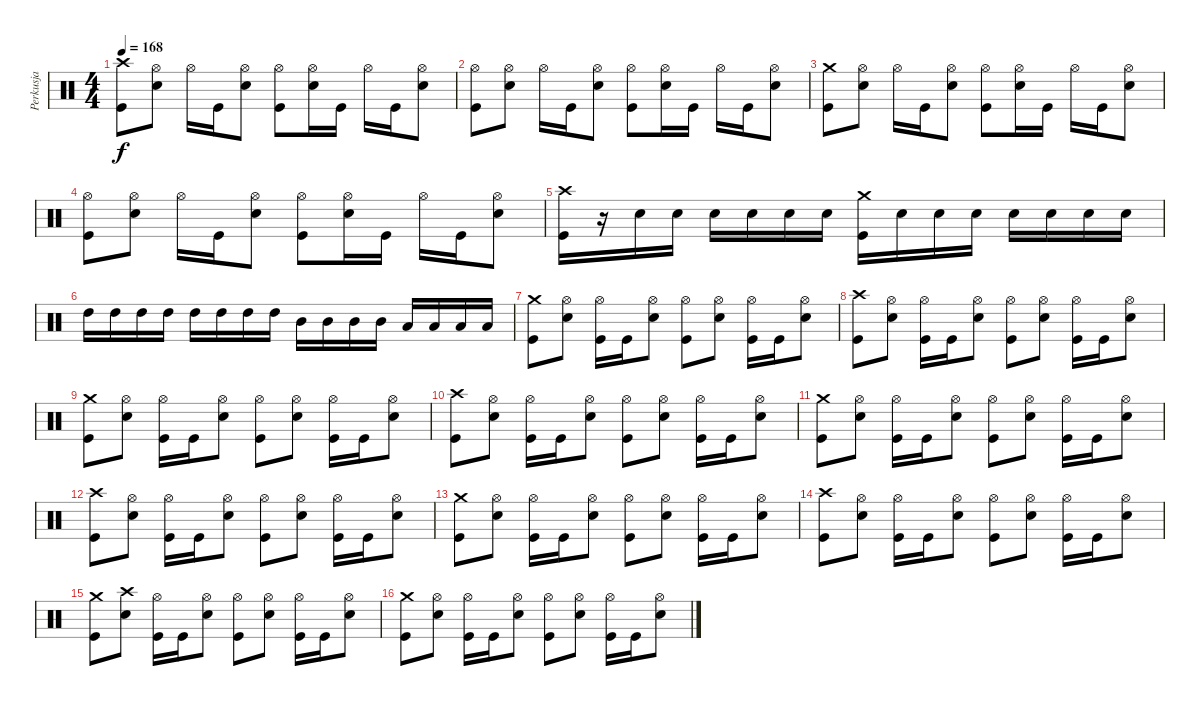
\track ("Perkusja" "Perkusja") {instrument percussion}
\staff {score}
\articulation defaults
\ts (4 4)
\tempo 168
\clef neutral
\ks c
("Kick (hit)" "Crash high (hit)").8{dy f} ("Hi-Hat (open)" "Snare (hit) 2").8 "Hi-Hat (open)".16 "Kick (hit)".16 ("Hi-Hat (open)" "Snare (hit) 2").8 ("Kick (hit)" "Hi-Hat (open)").8 ("Hi-Hat (open)" "Snare (hit) 2").16 "Kick (hit)".16 "Hi-Hat (open)".16 "Kick (hit)".16 ("Hi-Hat (open)" "Snare (hit) 2").8 |
("Kick (hit)" "Hi-Hat (open)").8 ("Hi-Hat (open)" "Snare (hit) 2").8 "Hi-Hat (open)".16 "Kick (hit)".16 ("Hi-Hat (open)" "Snare (hit) 2").8 ("Kick (hit)" "Hi-Hat (open)").8 ("Hi-Hat (open)" "Snare (hit) 2").16 "Kick (hit)".16 "Hi-Hat (open)".16 "Kick (hit)".16 ("Hi-Hat (open)" "Snare (hit) 2").8 |
("Kick (hit)" "Crash medium (hit)").8 ("Hi-Hat (open)" "Snare (hit) 2").8 "Hi-Hat (open)".16 "Kick (hit)".16 ("Hi-Hat (open)" "Snare (hit) 2").8 ("Kick (hit)" "Hi-Hat (open)").8 ("Hi-Hat (open)" "Snare (hit) 2").16 "Kick (hit)".16 "Hi-Hat (open)".16 "Kick (hit)".16 ("Hi-Hat (open)" "Snare (hit) 2").8 |
("Kick (hit)" "Hi-Hat (open)").8 ("Hi-Hat (open)" "Snare (hit) 2").8 "Hi-Hat (open)".16 "Kick (hit)".16 ("Hi-Hat (open)" "Snare (hit) 2").8 ("Kick (hit)" "Hi-Hat (open)").8 ("Hi-Hat (open)" "Snare (hit) 2").16 "Kick (hit)".16 "Hi-Hat (open)".16 "Kick (hit)".16 ("Hi-Hat (open)" "Snare (hit) 2").8 |
("Kick (hit)" "Crash high (hit)").16 r.16 "Snare (hit) 2".16 "Snare (hit) 2".16 "Snare (hit) 2".16 "Snare (hit) 2".16 "Snare (hit) 2".16 "Snare (hit) 2".16 ("Kick (hit)" "Crash medium (hit)").16 "Snare (hit) 2".16 "Snare (hit) 2".16 "Snare (hit) 2".16 "Snare (hit) 2".16 "Snare (hit) 2".16 "Snare (hit) 2".16 "Snare (hit) 2".16 |
"High Tom (hit)".16 "High Tom (hit)".16 "High Tom (hit)".16 "High Tom (hit)".16 "High Tom (hit)".16 "High Tom (hit)".16 "High Tom (hit)".16 "High Tom (hit)".16 "Mid Tom (hit)".16 "Mid Tom (hit)".16 "Mid Tom (hit)".16 "Mid Tom (hit)".16 "Low Tom (hit)".16 "Low Tom (hit)".16 "Low Tom (hit)".16 "Low Tom (hit)".16 |
("Kick (hit)" "Crash medium (hit)").8 ("Hi-Hat (open)" "Snare (hit) 2").8 ("Kick (hit)" "Hi-Hat (open)").16 "Kick (hit)".16 ("Hi-Hat (open)" "Snare (hit) 2").8 ("Kick (hit)" "Hi-Hat (open)").8 ("Hi-Hat (open)" "Snare (hit) 2").8 ("Kick (hit)" "Hi-Hat (open)").16 "Kick (hit)".16 ("Hi-Hat (open)" "Snare (hit) 2").8 |
("Kick (hit)" "Crash high (hit)").8 ("Hi-Hat (open)" "Snare (hit) 2").8 ("Kick (hit)" "Hi-Hat (open)").16 "Kick (hit)".16 ("Hi-Hat (open)" "Snare (hit) 2").8 ("Kick (hit)" "Hi-Hat (open)").8 ("Hi-Hat (open)" "Snare (hit) 2").8 ("Kick (hit)" "Hi-Hat (open)").16 "Kick (hit)".16 ("Hi-Hat (open)" "Snare (hit) 2").8 |
("Kick (hit)" "Crash medium (hit)").8 ("Hi-Hat (open)" "Snare (hit) 2").8 ("Kick (hit)" "Hi-Hat (open)").16 "Kick (hit)".16 ("Hi-Hat (open)" "Snare (hit) 2").8 ("Kick (hit)" "Hi-Hat (open)").8 ("Hi-Hat (open)" "Snare (hit) 2").8 ("Kick (hit)" "Hi-Hat (open)").16 "Kick (hit)".16 ("Hi-Hat (open)" "Snare (hit) 2").8 |
("Kick (hit)" "Crash high (hit)").8 ("Hi-Hat (open)" "Snare (hit) 2").8 ("Kick (hit)" "Hi-Hat (open)").16 "Kick (hit)".16 ("Hi-Hat (open)" "Snare (hit) 2").8 ("Kick (hit)" "Hi-Hat (open)").8 ("Hi-Hat (open)" "Snare (hit) 2").8 ("Kick (hit)" "Hi-Hat (open)").16 "Kick (hit)".16 ("Hi-Hat (open)" "Snare (hit) 2").8 |
("Kick (hit)" "Crash medium (hit)").8 ("Hi-Hat (open)" "Snare (hit) 2").8 ("Kick (hit)" "Hi-Hat (open)").16 "Kick (hit)".16 ("Hi-Hat (open)" "Snare (hit) 2").8 ("Kick (hit)" "Hi-Hat (open)").8 ("Hi-Hat (open)" "Snare (hit) 2").8 ("Kick (hit)" "Hi-Hat (open)").16 "Kick (hit)".16 ("Hi-Hat (open)" "Snare (hit) 2").8 |
("Kick (hit)" "Crash high (hit)").8 ("Hi-Hat (open)" "Snare (hit) 2").8 ("Kick (hit)" "Hi-Hat (open)").16 "Kick (hit)".16 ("Hi-Hat (open)" "Snare (hit) 2").8 ("Kick (hit)" "Hi-Hat (open)").8 ("Hi-Hat (open)" "Snare (hit) 2").8 ("Kick (hit)" "Hi-Hat (open)").16 "Kick (hit)".16 ("Hi-Hat (open)" "Snare (hit) 2").8 |
("Kick (hit)" "Crash medium (hit)").8 ("Hi-Hat (open)" "Snare (hit) 2").8 ("Kick (hit)" "Hi-Hat (open)").16 "Kick (hit)".16 ("Hi-Hat (open)" "Snare (hit) 2").8 ("Kick (hit)" "Hi-Hat (open)").8 ("Hi-Hat (open)" "Snare (hit) 2").8 ("Kick (hit)" "Hi-Hat (open)").16 "Kick (hit)".16 ("Hi-Hat (open)" "Snare (hit) 2").8 |
("Kick (hit)" "Crash high (hit)").8 ("Hi-Hat (open)" "Snare (hit) 2").8 ("Kick (hit)" "Hi-Hat (open)").16 "Kick (hit)".16 ("Hi-Hat (open)" "Snare (hit) 2").8 ("Kick (hit)" "Hi-Hat (open)").8 ("Hi-Hat (open)" "Snare (hit) 2").8 ("Kick (hit)" "Hi-Hat (open)").16 "Kick (hit)".16 ("Hi-Hat (open)" "Snare (hit) 2").8 |
("Kick (hit)" "Crash medium (hit)").8 ("Crash high (hit)" "Snare (hit) 2").8 ("Kick (hit)" "Hi-Hat (open)").16 "Kick (hit)".16 ("Hi-Hat (open)" "Snare (hit) 2").8 ("Kick (hit)" "Hi-Hat (open)").8 ("Hi-Hat (open)" "Snare (hit) 2").8 ("Kick (hit)" "Hi-Hat (open)").16 "Kick (hit)".16 ("Hi-Hat (open)" "Snare (hit) 2").8 |
("Kick (hit)" "Crash medium (hit)").8 ("Hi-Hat (open)" "Snare (hit) 2").8 ("Kick (hit)" "Hi-Hat (open)").16 "Kick (hit)".16 ("Hi-Hat (open)" "Snare (hit) 2").8 ("Kick (hit)" "Hi-Hat (open)").8 ("Hi-Hat (open)" "Snare (hit) 2").8 ("Kick (hit)" "Hi-Hat (open)").16 "Kick (hit)".16 ("Hi-Hat (open)" "Snare (hit) 2").8
